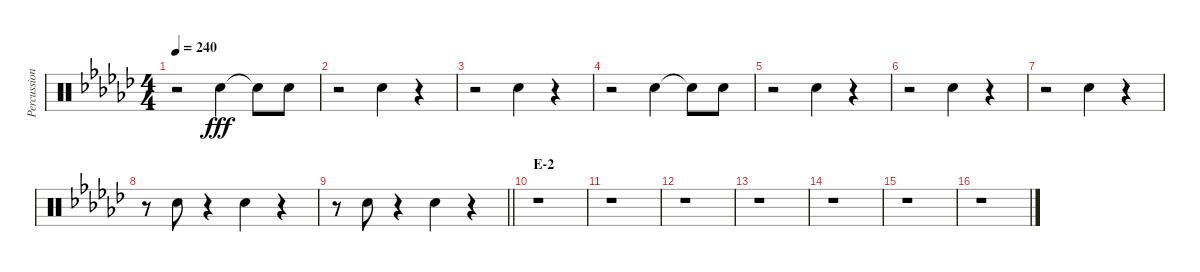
\track ("Percussion" "Percussion") {instrument percussion}
\staff {score}
\articulation defaults
\ts (4 4)
\tempo 240
\clef neutral
\ks gb
r.2{dy fff} "Hand Clap (hit)".4 "Snare (hit)"{t}.8 "Hand Clap (hit)".8 |
r.2 "Hand Clap (hit)".4 r.4 |
r.2 "Hand Clap (hit)".4 r.4 |
r.2 "Hand Clap (hit)".4 "Snare (hit)"{t}.8 "Hand Clap (hit)".8 |
r.2 "Hand Clap (hit)".4 r.4 |
r.2 "Hand Clap (hit)".4 r.4 |
r.2 "Hand Clap (hit)".4 r.4 |
r.8 "Hand Clap (hit)".8 r.4 "Hand Clap (hit)".4 r.4 |
\barLineRight lightlight
r.8 "Hand Clap (hit)".8 r.4 "Hand Clap (hit)".4 r.4 |
\section ("" "E-2")
r.1 |
r.1 |
r.1 |
r.1 |
r.1 |
r.1 |
r.1
